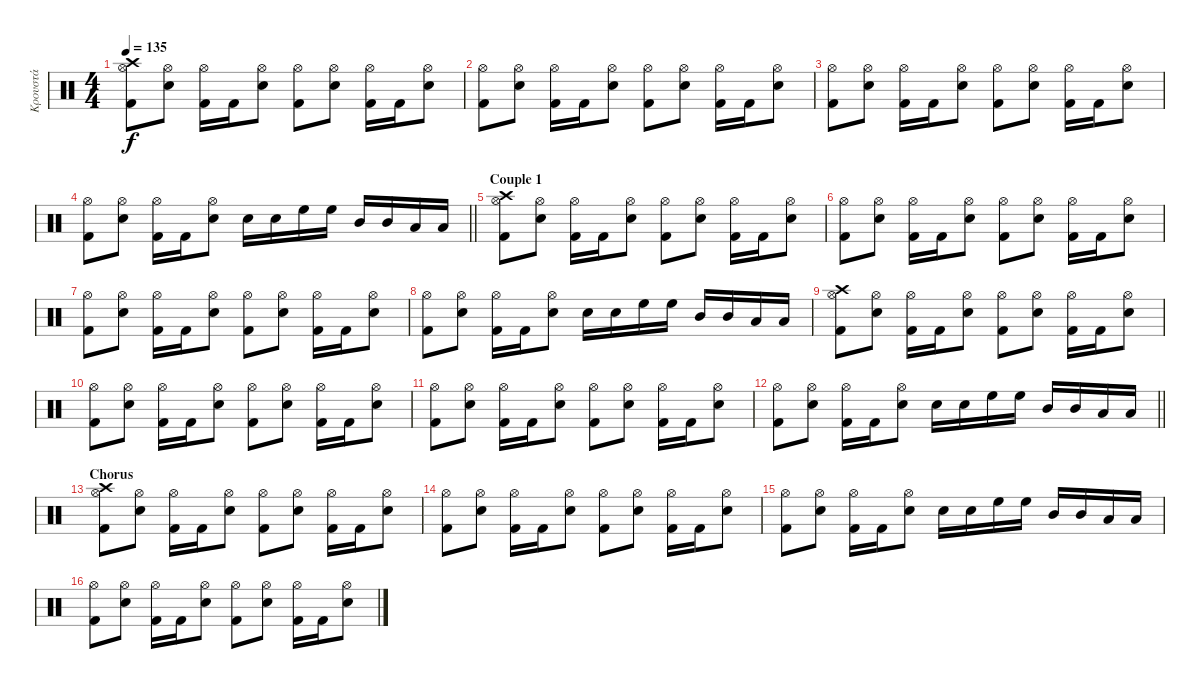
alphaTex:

\track ("Κρουστά" "Κρουστά") {instrument percussion}
\staff {score}
\articulation defaults
\ts (4 4)
\tempo 135
\clef neutral
\ks c
("Crash high (hit)" "Hi-Hat (open)" "Kick (hit) 2").8{dy f} ("Snare (hit) 2" "Hi-Hat (open)").8 ("Hi-Hat (open)" "Kick (hit) 2").16 "Kick (hit) 2".16 ("Snare (hit) 2" "Hi-Hat (open)").8 ("Hi-Hat (open)" "Kick (hit) 2").8 ("Snare (hit) 2" "Hi-Hat (open)").8 ("Hi-Hat (open)" "Kick (hit) 2").16 "Kick (hit) 2".16 ("Snare (hit) 2" "Hi-Hat (open)").8 |
("Hi-Hat (open)" "Kick (hit) 2").8 ("Snare (hit) 2" "Hi-Hat (open)").8 ("Hi-Hat (open)" "Kick (hit) 2").16 "Kick (hit) 2".16 ("Snare (hit) 2" "Hi-Hat (open)").8 ("Hi-Hat (open)" "Kick (hit) 2").8 ("Snare (hit) 2" "Hi-Hat (open)").8 ("Hi-Hat (open)" "Kick (hit) 2").16 "Kick (hit) 2".16 ("Snare (hit) 2" "Hi-Hat (open)").8 |
("Hi-Hat (open)" "Kick (hit) 2").8 ("Snare (hit) 2" "Hi-Hat (open)").8 ("Hi-Hat (open)" "Kick (hit) 2").16 "Kick (hit) 2".16 ("Snare (hit) 2" "Hi-Hat (open)").8 ("Hi-Hat (open)" "Kick (hit) 2").8 ("Snare (hit) 2" "Hi-Hat (open)").8 ("Hi-Hat (open)" "Kick (hit) 2").16 "Kick (hit) 2".16 ("Snare (hit) 2" "Hi-Hat (open)").8 |
\barLineRight lightlight
("Hi-Hat (open)" "Kick (hit) 2").8 ("Snare (hit) 2" "Hi-Hat (open)").8 ("Hi-Hat (open)" "Kick (hit) 2").16 "Kick (hit) 2".16 ("Snare (hit) 2" "Hi-Hat (open)").8 "Snare (hit) 2".16 "Snare (hit) 2".16 "High Floor Tom (hit)".16 "High Floor Tom (hit)".16 "Mid Tom (hit)".16 "Mid Tom (hit)".16 "Low Tom (hit)".16 "Low Tom (hit)".16 |
\section ("" "Couple 1")
("Crash high (hit)" "Hi-Hat (open)" "Kick (hit) 2").8 ("Snare (hit) 2" "Hi-Hat (open)").8 ("Hi-Hat (open)" "Kick (hit) 2").16 "Kick (hit) 2".16 ("Snare (hit) 2" "Hi-Hat (open)").8 ("Hi-Hat (open)" "Kick (hit) 2").8 ("Snare (hit) 2" "Hi-Hat (open)").8 ("Hi-Hat (open)" "Kick (hit) 2").16 "Kick (hit) 2".16 ("Snare (hit) 2" "Hi-Hat (open)").8 |
("Hi-Hat (open)" "Kick (hit) 2").8 ("Snare (hit) 2" "Hi-Hat (open)").8 ("Hi-Hat (open)" "Kick (hit) 2").16 "Kick (hit) 2".16 ("Snare (hit) 2" "Hi-Hat (open)").8 ("Hi-Hat (open)" "Kick (hit) 2").8 ("Snare (hit) 2" "Hi-Hat (open)").8 ("Hi-Hat (open)" "Kick (hit) 2").16 "Kick (hit) 2".16 ("Snare (hit) 2" "Hi-Hat (open)").8 |
("Hi-Hat (open)" "Kick (hit) 2").8 ("Snare (hit) 2" "Hi-Hat (open)").8 ("Hi-Hat (open)" "Kick (hit) 2").16 "Kick (hit) 2".16 ("Snare (hit) 2" "Hi-Hat (open)").8 ("Hi-Hat (open)" "Kick (hit) 2").8 ("Snare (hit) 2" "Hi-Hat (open)").8 ("Hi-Hat (open)" "Kick (hit) 2").16 "Kick (hit) 2".16 ("Snare (hit) 2" "Hi-Hat (open)").8 |
("Hi-Hat (open)" "Kick (hit) 2").8 ("Snare (hit) 2" "Hi-Hat (open)").8 ("Hi-Hat (open)" "Kick (hit) 2").16 "Kick (hit) 2".16 ("Snare (hit) 2" "Hi-Hat (open)").8 "Snare (hit) 2".16 "Snare (hit) 2".16 "High Floor Tom (hit)".16 "High Floor Tom (hit)".16 "Mid Tom (hit)".16 "Mid Tom (hit)".16 "Low Tom (hit)".16 "Low Tom (hit)".16 |
("Crash high (hit)" "Hi-Hat (open)" "Kick (hit) 2").8 ("Snare (hit) 2" "Hi-Hat (open)").8 ("Hi-Hat (open)" "Kick (hit) 2").16 "Kick (hit) 2".16 ("Snare (hit) 2" "Hi-Hat (open)").8 ("Hi-Hat (open)" "Kick (hit) 2").8 ("Snare (hit) 2" "Hi-Hat (open)").8 ("Hi-Hat (open)" "Kick (hit) 2").16 "Kick (hit) 2".16 ("Snare (hit) 2" "Hi-Hat (open)").8 |
("Hi-Hat (open)" "Kick (hit) 2").8 ("Snare (hit) 2" "Hi-Hat (open)").8 ("Hi-Hat (open)" "Kick (hit) 2").16 "Kick (hit) 2".16 ("Snare (hit) 2" "Hi-Hat (open)").8 ("Hi-Hat (open)" "Kick (hit) 2").8 ("Snare (hit) 2" "Hi-Hat (open)").8 ("Hi-Hat (open)" "Kick (hit) 2").16 "Kick (hit) 2".16 ("Snare (hit) 2" "Hi-Hat (open)").8 |
("Hi-Hat (open)" "Kick (hit) 2").8 ("Snare (hit) 2" "Hi-Hat (open)").8 ("Hi-Hat (open)" "Kick (hit) 2").16 "Kick (hit) 2".16 ("Snare (hit) 2" "Hi-Hat (open)").8 ("Hi-Hat (open)" "Kick (hit) 2").8 ("Snare (hit) 2" "Hi-Hat (open)").8 ("Hi-Hat (open)" "Kick (hit) 2").16 "Kick (hit) 2".16 ("Snare (hit) 2" "Hi-Hat (open)").8 |
\barLineRight lightlight
("Hi-Hat (open)" "Kick (hit) 2").8 ("Snare (hit) 2" "Hi-Hat (open)").8 ("Hi-Hat (open)" "Kick (hit) 2").16 "Kick (hit) 2".16 ("Snare (hit) 2" "Hi-Hat (open)").8 "Snare (hit) 2".16 "Snare (hit) 2".16 "High Floor Tom (hit)".16 "High Floor Tom (hit)".16 "Mid Tom (hit)".16 "Mid Tom (hit)".16 "Low Tom (hit)".16 "Low Tom (hit)".16 |
\section ("" "Chorus")
("Crash high (hit)" "Hi-Hat (open)" "Kick (hit) 2").8 ("Snare (hit) 2" "Hi-Hat (open)").8 ("Hi-Hat (open)" "Kick (hit) 2").16 "Kick (hit) 2".16 ("Snare (hit) 2" "Hi-Hat (open)").8 ("Hi-Hat (open)" "Kick (hit) 2").8 ("Snare (hit) 2" "Hi-Hat (open)").8 ("Hi-Hat (open)" "Kick (hit) 2").16 "Kick (hit) 2".16 ("Snare (hit) 2" "Hi-Hat (open)").8 |
("Hi-Hat (open)" "Kick (hit) 2").8 ("Snare (hit) 2" "Hi-Hat (open)").8 ("Hi-Hat (open)" "Kick (hit) 2").16 "Kick (hit) 2".16 ("Snare (hit) 2" "Hi-Hat (open)").8 ("Hi-Hat (open)" "Kick (hit) 2").8 ("Snare (hit) 2" "Hi-Hat (open)").8 ("Hi-Hat (open)" "Kick (hit) 2").16 "Kick (hit) 2".16 ("Snare (hit) 2" "Hi-Hat (open)").8 |
("Hi-Hat (open)" "Kick (hit) 2").8 ("Snare (hit) 2" "Hi-Hat (open)").8 ("Hi-Hat (open)" "Kick (hit) 2").16 "Kick (hit) 2".16 ("Snare (hit) 2" "Hi-Hat (open)").8 "Snare (hit) 2".16 "Snare (hit) 2".16 "High Floor Tom (hit)".16 "High Floor Tom (hit)".16 "Mid Tom (hit)".16 "Mid Tom (hit)".16 "Low Tom (hit)".16 "Low Tom (hit)".16 |
("Hi-Hat (open)" "Kick (hit) 2").8 ("Snare (hit) 2" "Hi-Hat (open)").8 ("Hi-Hat (open)" "Kick (hit) 2").16 "Kick (hit) 2".16 ("Snare (hit) 2" "Hi-Hat (open)").8 ("Hi-Hat (open)" "Kick (hit) 2").8 ("Snare (hit) 2" "Hi-Hat (open)").8 ("Hi-Hat (open)" "Kick (hit) 2").16 "Kick (hit) 2".16 ("Snare (hit) 2" "Hi-Hat (open)").8
